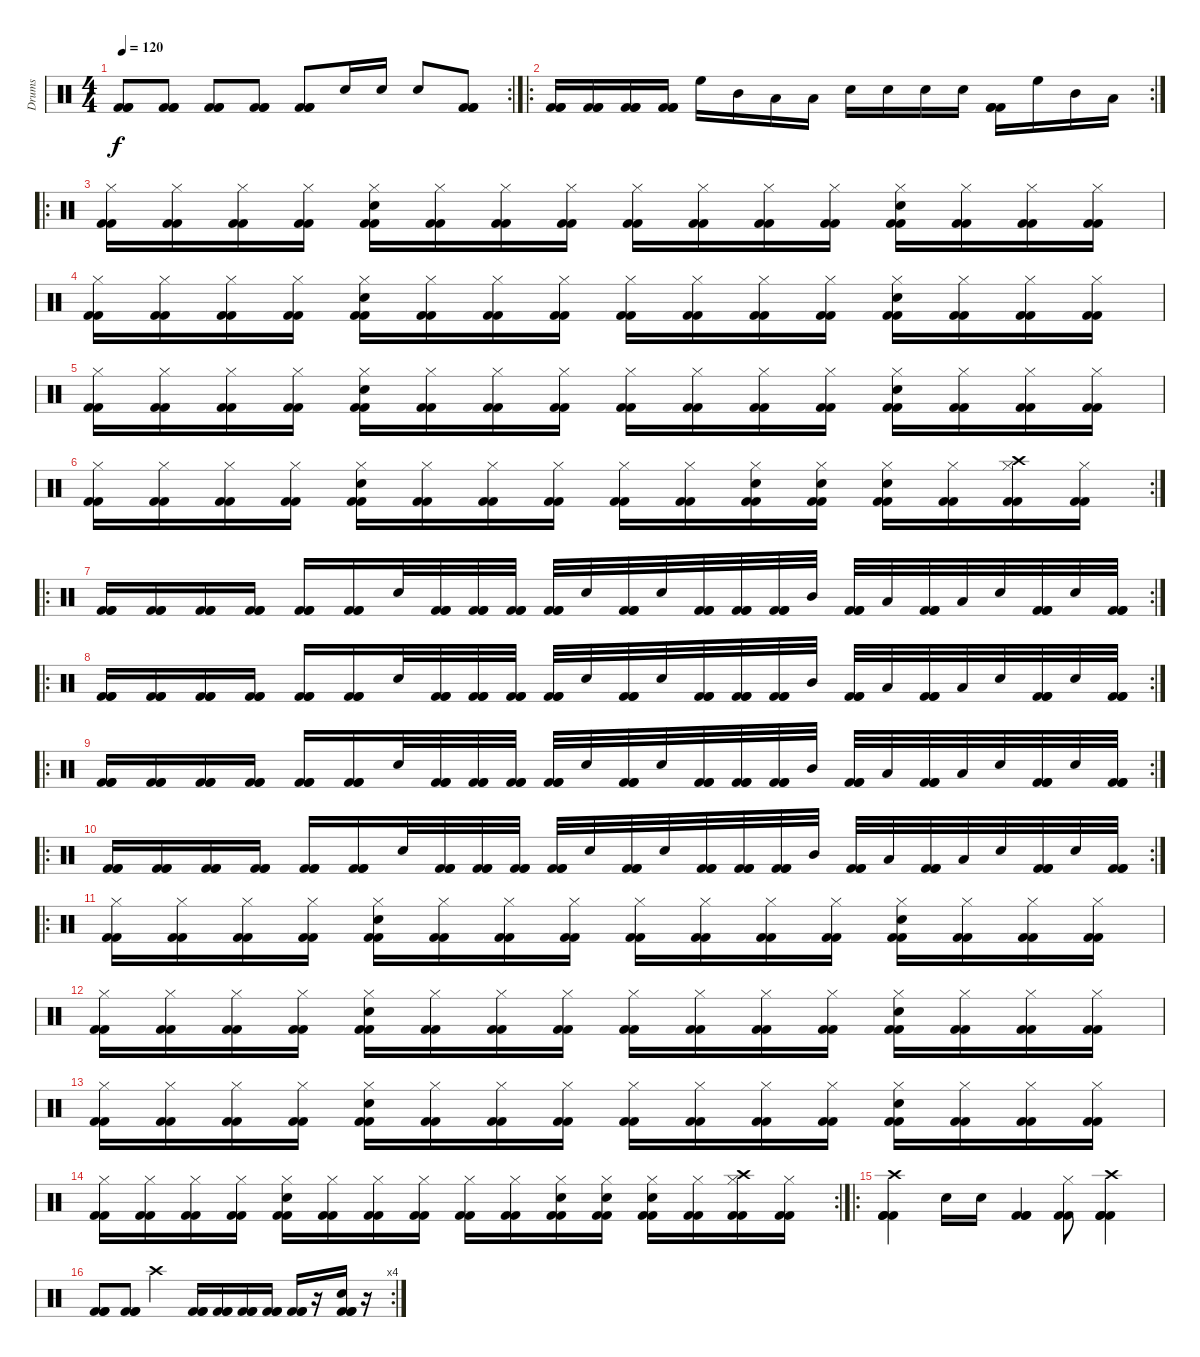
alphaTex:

\track ("Drums" "Drums") {instrument percussion}
\staff {score}
\articulation defaults
\rc 2
\ts (4 4)
\tempo 120
\clef neutral
\ks c
("Kick (hit) 2" "Kick (hit) 2" "Kick (hit) 2").8{dy f} ("Kick (hit) 2" "Kick (hit) 2" "Kick (hit) 2").8 ("Kick (hit) 2" "Kick (hit) 2" "Kick (hit) 2").8 ("Kick (hit) 2" "Kick (hit) 2" "Kick (hit) 2").8 ("Kick (hit) 2" "Kick (hit) 2" "Kick (hit) 2").8 "Snare (hit) 2".16 "Snare (hit) 2".16 "Snare (hit) 2".8 ("Kick (hit) 2" "Kick (hit) 2" "Kick (hit) 2").8 |
\ro
\rc 2
("Kick (hit) 2" "Kick (hit) 2" "Kick (hit) 2").16 ("Kick (hit) 2" "Kick (hit) 2" "Kick (hit) 2").16 ("Kick (hit) 2" "Kick (hit) 2" "Kick (hit) 2").16 ("Kick (hit) 2" "Kick (hit) 2" "Kick (hit) 2").16 "High Floor Tom (hit)".16 "Mid Tom (hit)".16 "Low Tom (hit)".16 "Low Floor Tom (hit)".16 "Snare (hit) 2".16 "Snare (hit) 2".16 "Snare (hit) 2".16 "Snare (hit) 2".16 ("Kick (hit) 2" "Kick (hit) 2" "Kick (hit) 2").16 "High Floor Tom (hit)".16 "Mid Tom (hit)".16 "Low Tom (hit)".16 |
\ro
("Hi-Hat (closed)" "Kick (hit) 2" "Kick (hit) 2").16 ("Hi-Hat (closed)" "Kick (hit) 2" "Kick (hit) 2").16 ("Hi-Hat (closed)" "Kick (hit) 2" "Kick (hit) 2").16 ("Hi-Hat (closed)" "Kick (hit) 2" "Kick (hit) 2").16 ("Snare (hit) 2" "Hi-Hat (closed)" "Kick (hit) 2" "Kick (hit) 2").16 ("Hi-Hat (closed)" "Kick (hit) 2" "Kick (hit) 2").16 ("Hi-Hat (closed)" "Kick (hit) 2" "Kick (hit) 2").16 ("Hi-Hat (closed)" "Kick (hit) 2" "Kick (hit) 2").16 ("Hi-Hat (closed)" "Kick (hit) 2" "Kick (hit) 2").16 ("Hi-Hat (closed)" "Kick (hit) 2" "Kick (hit) 2").16 ("Hi-Hat (closed)" "Kick (hit) 2" "Kick (hit) 2").16 ("Hi-Hat (closed)" "Kick (hit) 2" "Kick (hit) 2").16 ("Snare (hit) 2" "Hi-Hat (closed)" "Kick (hit) 2" "Kick (hit) 2").16 ("Hi-Hat (closed)" "Kick (hit) 2" "Kick (hit) 2").16 ("Hi-Hat (closed)" "Kick (hit) 2" "Kick (hit) 2").16 ("Hi-Hat (closed)" "Kick (hit) 2" "Kick (hit) 2").16 |
("Hi-Hat (closed)" "Kick (hit) 2" "Kick (hit) 2").16 ("Hi-Hat (closed)" "Kick (hit) 2" "Kick (hit) 2").16 ("Hi-Hat (closed)" "Kick (hit) 2" "Kick (hit) 2").16 ("Hi-Hat (closed)" "Kick (hit) 2" "Kick (hit) 2").16 ("Snare (hit) 2" "Hi-Hat (closed)" "Kick (hit) 2" "Kick (hit) 2").16 ("Hi-Hat (closed)" "Kick (hit) 2" "Kick (hit) 2").16 ("Hi-Hat (closed)" "Kick (hit) 2" "Kick (hit) 2").16 ("Hi-Hat (closed)" "Kick (hit) 2" "Kick (hit) 2").16 ("Hi-Hat (closed)" "Kick (hit) 2" "Kick (hit) 2").16 ("Hi-Hat (closed)" "Kick (hit) 2" "Kick (hit) 2").16 ("Hi-Hat (closed)" "Kick (hit) 2" "Kick (hit) 2").16 ("Hi-Hat (closed)" "Kick (hit) 2" "Kick (hit) 2").16 ("Snare (hit) 2" "Hi-Hat (closed)" "Kick (hit) 2" "Kick (hit) 2").16 ("Hi-Hat (closed)" "Kick (hit) 2" "Kick (hit) 2").16 ("Hi-Hat (closed)" "Kick (hit) 2" "Kick (hit) 2").16 ("Hi-Hat (closed)" "Kick (hit) 2" "Kick (hit) 2").16 |
("Hi-Hat (closed)" "Kick (hit) 2" "Kick (hit) 2").16 ("Hi-Hat (closed)" "Kick (hit) 2" "Kick (hit) 2").16 ("Hi-Hat (closed)" "Kick (hit) 2" "Kick (hit) 2").16 ("Hi-Hat (closed)" "Kick (hit) 2" "Kick (hit) 2").16 ("Snare (hit) 2" "Hi-Hat (closed)" "Kick (hit) 2" "Kick (hit) 2").16 ("Hi-Hat (closed)" "Kick (hit) 2" "Kick (hit) 2").16 ("Hi-Hat (closed)" "Kick (hit) 2" "Kick (hit) 2").16 ("Hi-Hat (closed)" "Kick (hit) 2" "Kick (hit) 2").16 ("Hi-Hat (closed)" "Kick (hit) 2" "Kick (hit) 2").16 ("Hi-Hat (closed)" "Kick (hit) 2" "Kick (hit) 2").16 ("Hi-Hat (closed)" "Kick (hit) 2" "Kick (hit) 2").16 ("Hi-Hat (closed)" "Kick (hit) 2" "Kick (hit) 2").16 ("Snare (hit) 2" "Hi-Hat (closed)" "Kick (hit) 2" "Kick (hit) 2").16 ("Hi-Hat (closed)" "Kick (hit) 2" "Kick (hit) 2").16 ("Hi-Hat (closed)" "Kick (hit) 2" "Kick (hit) 2").16 ("Hi-Hat (closed)" "Kick (hit) 2" "Kick (hit) 2").16 |
\rc 2
("Hi-Hat (closed)" "Kick (hit) 2" "Kick (hit) 2").16 ("Hi-Hat (closed)" "Kick (hit) 2" "Kick (hit) 2").16 ("Hi-Hat (closed)" "Kick (hit) 2" "Kick (hit) 2").16 ("Hi-Hat (closed)" "Kick (hit) 2" "Kick (hit) 2").16 ("Snare (hit) 2" "Hi-Hat (closed)" "Kick (hit) 2" "Kick (hit) 2").16 ("Hi-Hat (closed)" "Kick (hit) 2" "Kick (hit) 2").16 ("Hi-Hat (closed)" "Kick (hit) 2" "Kick (hit) 2").16 ("Hi-Hat (closed)" "Kick (hit) 2" "Kick (hit) 2").16 ("Hi-Hat (closed)" "Kick (hit) 2" "Kick (hit) 2").16 ("Hi-Hat (closed)" "Kick (hit) 2" "Kick (hit) 2").16 ("Snare (hit) 2" "Hi-Hat (closed)" "Kick (hit) 2" "Kick (hit) 2").16 ("Snare (hit) 2" "Hi-Hat (closed)" "Kick (hit) 2" "Kick (hit) 2").16 ("Snare (hit) 2" "Hi-Hat (closed)" "Kick (hit) 2" "Kick (hit) 2").16 ("Hi-Hat (closed)" "Kick (hit) 2" "Kick (hit) 2").16 ("Crash high (hit)" "Hi-Hat (closed)" "Kick (hit) 2" "Kick (hit) 2").16 ("Hi-Hat (closed)" "Kick (hit) 2" "Kick (hit) 2").16 |
\ro
\rc 2
("Kick (hit) 2" "Kick (hit) 2" "Kick (hit) 2").16 ("Kick (hit) 2" "Kick (hit) 2" "Kick (hit) 2").16 ("Kick (hit) 2" "Kick (hit) 2" "Kick (hit) 2").16 ("Kick (hit) 2" "Kick (hit) 2" "Kick (hit) 2").16 ("Kick (hit) 2" "Kick (hit) 2" "Kick (hit) 2").16 ("Kick (hit) 2" "Kick (hit) 2" "Kick (hit) 2").16 "Snare (hit) 2".32 ("Kick (hit) 2" "Kick (hit) 2" "Kick (hit) 2").32 ("Kick (hit) 2" "Kick (hit) 2" "Kick (hit) 2").32 ("Kick (hit) 2" "Kick (hit) 2" "Kick (hit) 2").32 ("Kick (hit) 2" "Kick (hit) 2" "Kick (hit) 2").32 "Snare (hit) 2".32 ("Kick (hit) 2" "Kick (hit) 2" "Kick (hit) 2").32 "Snare (hit) 2".32 ("Kick (hit) 2" "Kick (hit) 2" "Kick (hit) 2").32 ("Kick (hit) 2" "Kick (hit) 2" "Kick (hit) 2").32 ("Kick (hit) 2" "Kick (hit) 2" "Kick (hit) 2").32 "Mid Tom (hit)".32 ("Kick (hit) 2" "Kick (hit) 2" "Kick (hit) 2").32 "Low Tom (hit)".32 ("Kick (hit) 2" "Kick (hit) 2" "Kick (hit) 2").32 "Low Floor Tom (hit)".32 "Snare (hit) 2".32 ("Kick (hit) 2" "Kick (hit) 2" "Kick (hit) 2").32 "Snare (hit) 2".32 ("Kick (hit) 2" "Kick (hit) 2" "Kick (hit) 2").32 |
\ro
\rc 2
("Kick (hit) 2" "Kick (hit) 2" "Kick (hit) 2").16 ("Kick (hit) 2" "Kick (hit) 2" "Kick (hit) 2").16 ("Kick (hit) 2" "Kick (hit) 2" "Kick (hit) 2").16 ("Kick (hit) 2" "Kick (hit) 2" "Kick (hit) 2").16 ("Kick (hit) 2" "Kick (hit) 2" "Kick (hit) 2").16 ("Kick (hit) 2" "Kick (hit) 2" "Kick (hit) 2").16 "Snare (hit) 2".32 ("Kick (hit) 2" "Kick (hit) 2" "Kick (hit) 2").32 ("Kick (hit) 2" "Kick (hit) 2" "Kick (hit) 2").32 ("Kick (hit) 2" "Kick (hit) 2" "Kick (hit) 2").32 ("Kick (hit) 2" "Kick (hit) 2" "Kick (hit) 2").32 "Snare (hit) 2".32 ("Kick (hit) 2" "Kick (hit) 2" "Kick (hit) 2").32 "Snare (hit) 2".32 ("Kick (hit) 2" "Kick (hit) 2" "Kick (hit) 2").32 ("Kick (hit) 2" "Kick (hit) 2" "Kick (hit) 2").32 ("Kick (hit) 2" "Kick (hit) 2" "Kick (hit) 2").32 "Mid Tom (hit)".32 ("Kick (hit) 2" "Kick (hit) 2" "Kick (hit) 2").32 "Low Tom (hit)".32 ("Kick (hit) 2" "Kick (hit) 2" "Kick (hit) 2").32 "Low Floor Tom (hit)".32 "Snare (hit) 2".32 ("Kick (hit) 2" "Kick (hit) 2" "Kick (hit) 2").32 "Snare (hit) 2".32 ("Kick (hit) 2" "Kick (hit) 2" "Kick (hit) 2").32 |
\ro
\rc 2
("Kick (hit) 2" "Kick (hit) 2" "Kick (hit) 2").16 ("Kick (hit) 2" "Kick (hit) 2" "Kick (hit) 2").16 ("Kick (hit) 2" "Kick (hit) 2" "Kick (hit) 2").16 ("Kick (hit) 2" "Kick (hit) 2" "Kick (hit) 2").16 ("Kick (hit) 2" "Kick (hit) 2" "Kick (hit) 2").16 ("Kick (hit) 2" "Kick (hit) 2" "Kick (hit) 2").16 "Snare (hit) 2".32 ("Kick (hit) 2" "Kick (hit) 2" "Kick (hit) 2").32 ("Kick (hit) 2" "Kick (hit) 2" "Kick (hit) 2").32 ("Kick (hit) 2" "Kick (hit) 2" "Kick (hit) 2").32 ("Kick (hit) 2" "Kick (hit) 2" "Kick (hit) 2").32 "Snare (hit) 2".32 ("Kick (hit) 2" "Kick (hit) 2" "Kick (hit) 2").32 "Snare (hit) 2".32 ("Kick (hit) 2" "Kick (hit) 2" "Kick (hit) 2").32 ("Kick (hit) 2" "Kick (hit) 2" "Kick (hit) 2").32 ("Kick (hit) 2" "Kick (hit) 2" "Kick (hit) 2").32 "Mid Tom (hit)".32 ("Kick (hit) 2" "Kick (hit) 2" "Kick (hit) 2").32 "Low Tom (hit)".32 ("Kick (hit) 2" "Kick (hit) 2" "Kick (hit) 2").32 "Low Floor Tom (hit)".32 "Snare (hit) 2".32 ("Kick (hit) 2" "Kick (hit) 2" "Kick (hit) 2").32 "Snare (hit) 2".32 ("Kick (hit) 2" "Kick (hit) 2" "Kick (hit) 2").32 |
\ro
\rc 2
("Kick (hit) 2" "Kick (hit) 2" "Kick (hit) 2").16 ("Kick (hit) 2" "Kick (hit) 2" "Kick (hit) 2").16 ("Kick (hit) 2" "Kick (hit) 2" "Kick (hit) 2").16 ("Kick (hit) 2" "Kick (hit) 2" "Kick (hit) 2").16 ("Kick (hit) 2" "Kick (hit) 2" "Kick (hit) 2").16 ("Kick (hit) 2" "Kick (hit) 2" "Kick (hit) 2").16 "Snare (hit) 2".32 ("Kick (hit) 2" "Kick (hit) 2" "Kick (hit) 2").32 ("Kick (hit) 2" "Kick (hit) 2" "Kick (hit) 2").32 ("Kick (hit) 2" "Kick (hit) 2" "Kick (hit) 2").32 ("Kick (hit) 2" "Kick (hit) 2" "Kick (hit) 2").32 "Snare (hit) 2".32 ("Kick (hit) 2" "Kick (hit) 2" "Kick (hit) 2").32 "Snare (hit) 2".32 ("Kick (hit) 2" "Kick (hit) 2" "Kick (hit) 2").32 ("Kick (hit) 2" "Kick (hit) 2" "Kick (hit) 2").32 ("Kick (hit) 2" "Kick (hit) 2" "Kick (hit) 2").32 "Mid Tom (hit)".32 ("Kick (hit) 2" "Kick (hit) 2" "Kick (hit) 2").32 "Low Tom (hit)".32 ("Kick (hit) 2" "Kick (hit) 2" "Kick (hit) 2").32 "Low Floor Tom (hit)".32 "Snare (hit) 2".32 ("Kick (hit) 2" "Kick (hit) 2" "Kick (hit) 2").32 "Snare (hit) 2".32 ("Kick (hit) 2" "Kick (hit) 2" "Kick (hit) 2").32 |
\ro
("Hi-Hat (closed)" "Kick (hit) 2" "Kick (hit) 2").16 ("Hi-Hat (closed)" "Kick (hit) 2" "Kick (hit) 2").16 ("Hi-Hat (closed)" "Kick (hit) 2" "Kick (hit) 2").16 ("Hi-Hat (closed)" "Kick (hit) 2" "Kick (hit) 2").16 ("Snare (hit) 2" "Hi-Hat (closed)" "Kick (hit) 2" "Kick (hit) 2").16 ("Hi-Hat (closed)" "Kick (hit) 2" "Kick (hit) 2").16 ("Hi-Hat (closed)" "Kick (hit) 2" "Kick (hit) 2").16 ("Hi-Hat (closed)" "Kick (hit) 2" "Kick (hit) 2").16 ("Hi-Hat (closed)" "Kick (hit) 2" "Kick (hit) 2").16 ("Hi-Hat (closed)" "Kick (hit) 2" "Kick (hit) 2").16 ("Hi-Hat (closed)" "Kick (hit) 2" "Kick (hit) 2").16 ("Hi-Hat (closed)" "Kick (hit) 2" "Kick (hit) 2").16 ("Snare (hit) 2" "Hi-Hat (closed)" "Kick (hit) 2" "Kick (hit) 2").16 ("Hi-Hat (closed)" "Kick (hit) 2" "Kick (hit) 2").16 ("Hi-Hat (closed)" "Kick (hit) 2" "Kick (hit) 2").16 ("Hi-Hat (closed)" "Kick (hit) 2" "Kick (hit) 2").16 |
("Hi-Hat (closed)" "Kick (hit) 2" "Kick (hit) 2").16 ("Hi-Hat (closed)" "Kick (hit) 2" "Kick (hit) 2").16 ("Hi-Hat (closed)" "Kick (hit) 2" "Kick (hit) 2").16 ("Hi-Hat (closed)" "Kick (hit) 2" "Kick (hit) 2").16 ("Snare (hit) 2" "Hi-Hat (closed)" "Kick (hit) 2" "Kick (hit) 2").16 ("Hi-Hat (closed)" "Kick (hit) 2" "Kick (hit) 2").16 ("Hi-Hat (closed)" "Kick (hit) 2" "Kick (hit) 2").16 ("Hi-Hat (closed)" "Kick (hit) 2" "Kick (hit) 2").16 ("Hi-Hat (closed)" "Kick (hit) 2" "Kick (hit) 2").16 ("Hi-Hat (closed)" "Kick (hit) 2" "Kick (hit) 2").16 ("Hi-Hat (closed)" "Kick (hit) 2" "Kick (hit) 2").16 ("Hi-Hat (closed)" "Kick (hit) 2" "Kick (hit) 2").16 ("Snare (hit) 2" "Hi-Hat (closed)" "Kick (hit) 2" "Kick (hit) 2").16 ("Hi-Hat (closed)" "Kick (hit) 2" "Kick (hit) 2").16 ("Hi-Hat (closed)" "Kick (hit) 2" "Kick (hit) 2").16 ("Hi-Hat (closed)" "Kick (hit) 2" "Kick (hit) 2").16 |
("Hi-Hat (closed)" "Kick (hit) 2" "Kick (hit) 2").16 ("Hi-Hat (closed)" "Kick (hit) 2" "Kick (hit) 2").16 ("Hi-Hat (closed)" "Kick (hit) 2" "Kick (hit) 2").16 ("Hi-Hat (closed)" "Kick (hit) 2" "Kick (hit) 2").16 ("Snare (hit) 2" "Hi-Hat (closed)" "Kick (hit) 2" "Kick (hit) 2").16 ("Hi-Hat (closed)" "Kick (hit) 2" "Kick (hit) 2").16 ("Hi-Hat (closed)" "Kick (hit) 2" "Kick (hit) 2").16 ("Hi-Hat (closed)" "Kick (hit) 2" "Kick (hit) 2").16 ("Hi-Hat (closed)" "Kick (hit) 2" "Kick (hit) 2").16 ("Hi-Hat (closed)" "Kick (hit) 2" "Kick (hit) 2").16 ("Hi-Hat (closed)" "Kick (hit) 2" "Kick (hit) 2").16 ("Hi-Hat (closed)" "Kick (hit) 2" "Kick (hit) 2").16 ("Snare (hit) 2" "Hi-Hat (closed)" "Kick (hit) 2" "Kick (hit) 2").16 ("Hi-Hat (closed)" "Kick (hit) 2" "Kick (hit) 2").16 ("Hi-Hat (closed)" "Kick (hit) 2" "Kick (hit) 2").16 ("Hi-Hat (closed)" "Kick (hit) 2" "Kick (hit) 2").16 |
\rc 2
("Hi-Hat (closed)" "Kick (hit) 2" "Kick (hit) 2").16 ("Hi-Hat (closed)" "Kick (hit) 2" "Kick (hit) 2").16 ("Hi-Hat (closed)" "Kick (hit) 2" "Kick (hit) 2").16 ("Hi-Hat (closed)" "Kick (hit) 2" "Kick (hit) 2").16 ("Snare (hit) 2" "Hi-Hat (closed)" "Kick (hit) 2" "Kick (hit) 2").16 ("Hi-Hat (closed)" "Kick (hit) 2" "Kick (hit) 2").16 ("Hi-Hat (closed)" "Kick (hit) 2" "Kick (hit) 2").16 ("Hi-Hat (closed)" "Kick (hit) 2" "Kick (hit) 2").16 ("Hi-Hat (closed)" "Kick (hit) 2" "Kick (hit) 2").16 ("Hi-Hat (closed)" "Kick (hit) 2" "Kick (hit) 2").16 ("Snare (hit) 2" "Hi-Hat (closed)" "Kick (hit) 2" "Kick (hit) 2").16 ("Snare (hit) 2" "Hi-Hat (closed)" "Kick (hit) 2" "Kick (hit) 2").16 ("Snare (hit) 2" "Hi-Hat (closed)" "Kick (hit) 2" "Kick (hit) 2").16 ("Hi-Hat (closed)" "Kick (hit) 2" "Kick (hit) 2").16 ("Crash high (hit)" "Hi-Hat (closed)" "Kick (hit) 2" "Kick (hit) 2").16 ("Hi-Hat (closed)" "Kick (hit) 2" "Kick (hit) 2").16 |
\ro
("Crash high (hit)" "Kick (hit) 2" "Kick (hit) 2" "Kick (hit) 2").4 "Snare (hit) 2".16 "Snare (hit) 2".16 ("Kick (hit) 2" "Kick (hit) 2" "Kick (hit) 2").4 ("Hi-Hat (closed)" "Kick (hit) 2" "Kick (hit) 2").8 ("Crash high (hit)" "Kick (hit) 2" "Kick (hit) 2" "Kick (hit) 2").4 |
\rc 4
("Kick (hit) 2" "Kick (hit) 2" "Kick (hit) 2").8 ("Kick (hit) 2" "Kick (hit) 2" "Kick (hit) 2").8 "Crash high (hit)".4 ("Kick (hit) 2" "Kick (hit) 2" "Kick (hit) 2").16 ("Kick (hit) 2" "Kick (hit) 2" "Kick (hit) 2").16 ("Kick (hit) 2" "Kick (hit) 2" "Kick (hit) 2").16 ("Kick (hit) 2" "Kick (hit) 2" "Kick (hit) 2").16 ("Kick (hit) 2" "Kick (hit) 2" "Kick (hit) 2").16 r.16 ("Snare (hit) 2" "Kick (hit) 2" "Kick (hit) 2" "Kick (hit) 2").16 r.16
